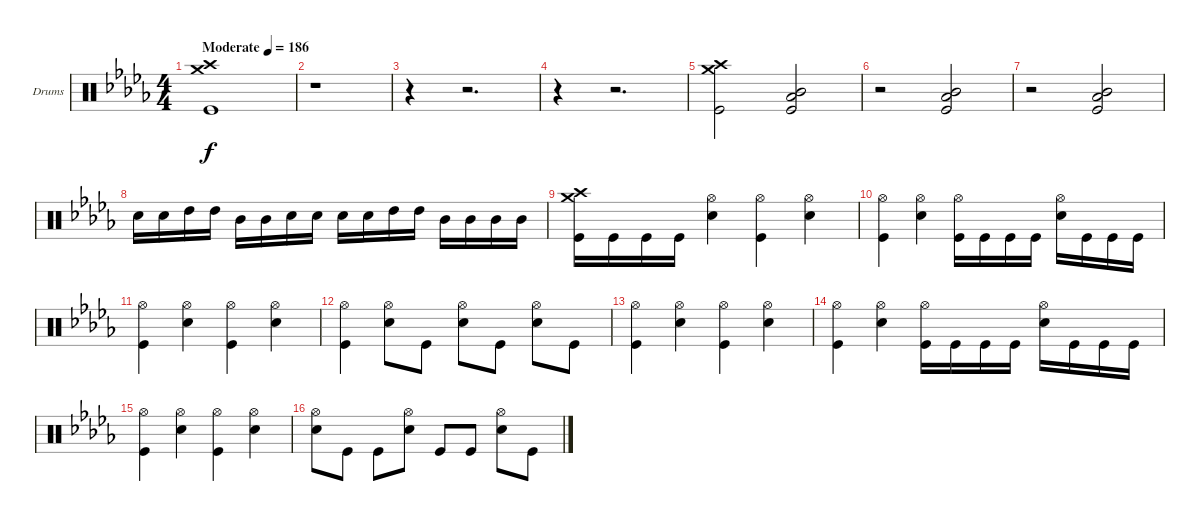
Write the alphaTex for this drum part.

\bracketExtendMode groupsimilarinstruments
\firstSystemTrackNameOrientation horizontal
\otherSystemsTrackNameOrientation horizontal
\track ("Drumkit" "Drums") {instrument percussion}
\staff {score}
\articulation defaults
\ts (4 4)
\beaming (8 2 2 2 2)
\tempo (186 "Moderate")
\clef neutral
\ks db
("Crash high (hit)" "Crash medium (hit)" "Kick (hit)").1{dy f} |
r.1 |
r.4 r.2{d} |
r.4 r.2{d} |
("Crash high (hit)" "Crash medium (hit)" "Kick (hit)").2 ("Mid Tom (hit)" "Low Tom (hit)" "Kick (hit)").2 |
r.2 ("Mid Tom (hit)" "Low Tom (hit)" "Kick (hit)").2 |
r.2 ("Mid Tom (hit)" "Low Tom (hit)" "Kick (hit)").2 |
"Snare (hit) 2".16 "Snare (hit) 2".16 "High Tom (hit)".16 "High Tom (hit)".16 "Mid Tom (hit)".16 "Mid Tom (hit)".16 "Snare (hit) 2".16 "Snare (hit) 2".16 "Snare (hit) 2".16 "Snare (hit) 2".16 "High Tom (hit)".16 "High Tom (hit)".16 "Mid Tom (hit)".16 "Mid Tom (hit)".16 "Mid Tom (hit)".16 "Mid Tom (hit)".16 |
("Crash high (hit)" "Crash medium (hit)" "Kick (hit)").16 "Kick (hit)".16 "Kick (hit)".16 "Kick (hit)".16 ("Hi-Hat (open)" "Snare (hit) 2").4 ("Hi-Hat (open)" "Kick (hit)").4 ("Hi-Hat (open)" "Snare (hit) 2").4 |
("Hi-Hat (open)" "Kick (hit)").4 ("Hi-Hat (open)" "Snare (hit) 2").4 ("Hi-Hat (open)" "Kick (hit)").16 "Kick (hit)".16 "Kick (hit)".16 "Kick (hit)".16 ("Hi-Hat (open)" "Snare (hit) 2").16 "Kick (hit)".16 "Kick (hit)".16 "Kick (hit)".16 |
("Hi-Hat (open)" "Kick (hit)").4 ("Hi-Hat (open)" "Snare (hit) 2").4 ("Hi-Hat (open)" "Kick (hit)").4 ("Hi-Hat (open)" "Snare (hit) 2").4 |
("Hi-Hat (open)" "Kick (hit)").4 ("Hi-Hat (open)" "Snare (hit) 2").8 "Kick (hit)".8 ("Hi-Hat (open)" "Snare (hit) 2").8 "Kick (hit)".8 ("Hi-Hat (open)" "Snare (hit) 2").8 "Kick (hit)".8 |
("Hi-Hat (open)" "Kick (hit)").4 ("Hi-Hat (open)" "Snare (hit) 2").4 ("Hi-Hat (open)" "Kick (hit)").4 ("Hi-Hat (open)" "Snare (hit) 2").4 |
("Hi-Hat (open)" "Kick (hit)").4 ("Hi-Hat (open)" "Snare (hit) 2").4 ("Hi-Hat (open)" "Kick (hit)").16 "Kick (hit)".16 "Kick (hit)".16 "Kick (hit)".16 ("Hi-Hat (open)" "Snare (hit) 2").16 "Kick (hit)".16 "Kick (hit)".16 "Kick (hit)".16 |
("Hi-Hat (open)" "Kick (hit)").4 ("Hi-Hat (open)" "Snare (hit) 2").4 ("Hi-Hat (open)" "Kick (hit)").4 ("Hi-Hat (open)" "Snare (hit) 2").4 |
("Hi-Hat (open)" "Snare (hit) 2").8 "Kick (hit)".8 "Kick (hit)".8 ("Hi-Hat (open)" "Snare (hit) 2").8 "Kick (hit)".8 "Kick (hit)".8 ("Hi-Hat (open)" "Snare (hit) 2").8 "Kick (hit)".8
